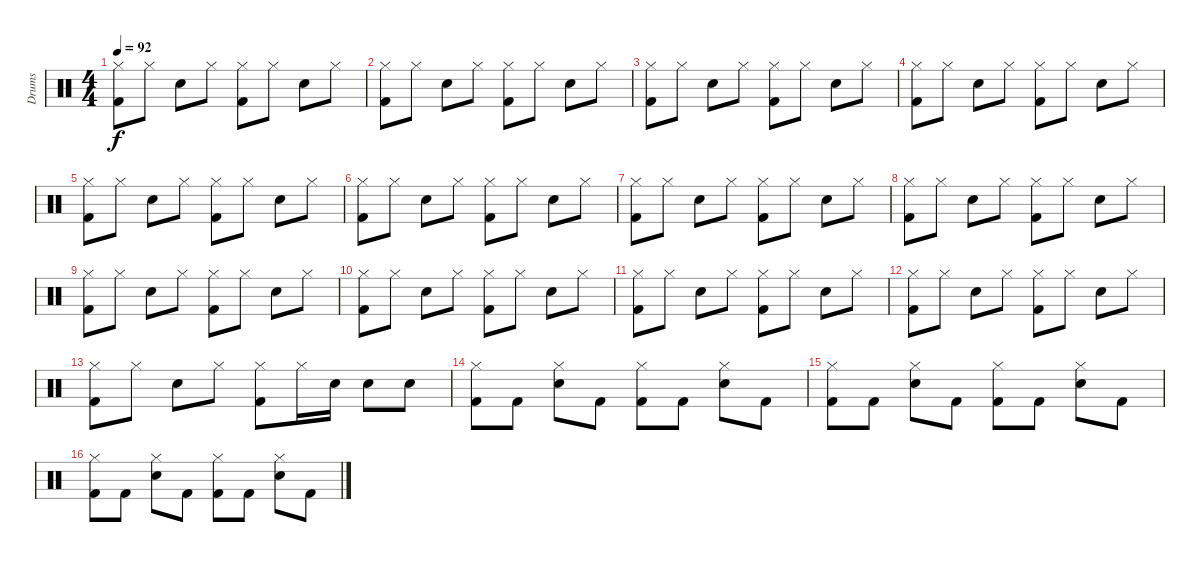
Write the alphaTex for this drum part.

\track ("Drums" "Drums") {instrument percussion}
\staff {score}
\articulation defaults
\ts (4 4)
\tempo 92
\clef neutral
\ks c
("Hi-Hat (closed)" "Kick (hit) 2").8{dy f} "Hi-Hat (closed)".8 "Electric Snare (hit)".8 "Hi-Hat (closed)".8 ("Hi-Hat (closed)" "Kick (hit) 2").8 "Hi-Hat (closed)".8 "Electric Snare (hit)".8 "Hi-Hat (closed)".8 |
("Hi-Hat (closed)" "Kick (hit) 2").8 "Hi-Hat (closed)".8 "Electric Snare (hit)".8 "Hi-Hat (closed)".8 ("Hi-Hat (closed)" "Kick (hit) 2").8 "Hi-Hat (closed)".8 "Electric Snare (hit)".8 "Hi-Hat (closed)".8 |
("Hi-Hat (closed)" "Kick (hit) 2").8 "Hi-Hat (closed)".8 "Electric Snare (hit)".8 "Hi-Hat (closed)".8 ("Hi-Hat (closed)" "Kick (hit) 2").8 "Hi-Hat (closed)".8 "Electric Snare (hit)".8 "Hi-Hat (closed)".8 |
("Hi-Hat (closed)" "Kick (hit) 2").8 "Hi-Hat (closed)".8 "Electric Snare (hit)".8 "Hi-Hat (closed)".8 ("Hi-Hat (closed)" "Kick (hit) 2").8 "Hi-Hat (closed)".8 "Electric Snare (hit)".8 "Hi-Hat (closed)".8 |
("Hi-Hat (closed)" "Kick (hit) 2").8 "Hi-Hat (closed)".8 "Electric Snare (hit)".8 "Hi-Hat (closed)".8 ("Hi-Hat (closed)" "Kick (hit) 2").8 "Hi-Hat (closed)".8 "Electric Snare (hit)".8 "Hi-Hat (closed)".8 |
("Hi-Hat (closed)" "Kick (hit) 2").8 "Hi-Hat (closed)".8 "Electric Snare (hit)".8 "Hi-Hat (closed)".8 ("Hi-Hat (closed)" "Kick (hit) 2").8 "Hi-Hat (closed)".8 "Electric Snare (hit)".8 "Hi-Hat (closed)".8 |
("Hi-Hat (closed)" "Kick (hit) 2").8 "Hi-Hat (closed)".8 "Electric Snare (hit)".8 "Hi-Hat (closed)".8 ("Hi-Hat (closed)" "Kick (hit) 2").8 "Hi-Hat (closed)".8 "Electric Snare (hit)".8 "Hi-Hat (closed)".8 |
("Hi-Hat (closed)" "Kick (hit) 2").8 "Hi-Hat (closed)".8 "Electric Snare (hit)".8 "Hi-Hat (closed)".8 ("Hi-Hat (closed)" "Kick (hit) 2").8 "Hi-Hat (closed)".8 "Electric Snare (hit)".8 "Hi-Hat (closed)".8 |
("Hi-Hat (closed)" "Kick (hit) 2").8 "Hi-Hat (closed)".8 "Electric Snare (hit)".8 "Hi-Hat (closed)".8 ("Hi-Hat (closed)" "Kick (hit) 2").8 "Hi-Hat (closed)".8 "Electric Snare (hit)".8 "Hi-Hat (closed)".8 |
("Hi-Hat (closed)" "Kick (hit) 2").8 "Hi-Hat (closed)".8 "Electric Snare (hit)".8 "Hi-Hat (closed)".8 ("Hi-Hat (closed)" "Kick (hit) 2").8 "Hi-Hat (closed)".8 "Electric Snare (hit)".8 "Hi-Hat (closed)".8 |
("Hi-Hat (closed)" "Kick (hit) 2").8 "Hi-Hat (closed)".8 "Electric Snare (hit)".8 "Hi-Hat (closed)".8 ("Hi-Hat (closed)" "Kick (hit) 2").8 "Hi-Hat (closed)".8 "Electric Snare (hit)".8 "Hi-Hat (closed)".8 |
("Hi-Hat (closed)" "Kick (hit) 2").8 "Hi-Hat (closed)".8 "Electric Snare (hit)".8 "Hi-Hat (closed)".8 ("Hi-Hat (closed)" "Kick (hit) 2").8 "Hi-Hat (closed)".8 "Electric Snare (hit)".8 "Hi-Hat (closed)".8 |
("Hi-Hat (closed)" "Kick (hit) 2").8 "Hi-Hat (closed)".8 "Electric Snare (hit)".8 "Hi-Hat (closed)".8 ("Hi-Hat (closed)" "Kick (hit) 2").8 "Hi-Hat (closed)".16 "Electric Snare (hit)".16 "Electric Snare (hit)".8 "Electric Snare (hit)".8 |
("Hi-Hat (closed)" "Kick (hit) 2").8 "Kick (hit) 2".8 ("Hi-Hat (closed)" "Electric Snare (hit)").8 "Kick (hit) 2".8 ("Hi-Hat (closed)" "Kick (hit) 2").8 "Kick (hit) 2".8 ("Hi-Hat (closed)" "Electric Snare (hit)").8 "Kick (hit) 2".8 |
("Hi-Hat (closed)" "Kick (hit) 2").8 "Kick (hit) 2".8 ("Hi-Hat (closed)" "Electric Snare (hit)").8 "Kick (hit) 2".8 ("Hi-Hat (closed)" "Kick (hit) 2").8 "Kick (hit) 2".8 ("Hi-Hat (closed)" "Electric Snare (hit)").8 "Kick (hit) 2".8 |
("Hi-Hat (closed)" "Kick (hit) 2").8 "Kick (hit) 2".8 ("Hi-Hat (closed)" "Electric Snare (hit)").8 "Kick (hit) 2".8 ("Hi-Hat (closed)" "Kick (hit) 2").8 "Kick (hit) 2".8 ("Hi-Hat (closed)" "Electric Snare (hit)").8 "Kick (hit) 2".8
